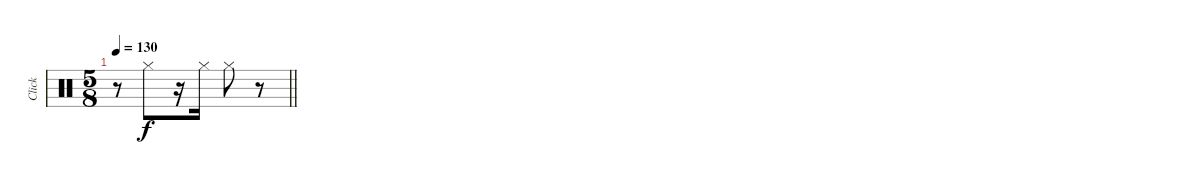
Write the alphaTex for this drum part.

\track ("Click" "Click") {instrument percussion}
\staff {score}
\articulation defaults
\ts (5 8)
\tempo 130
\clef neutral
\barLineRight lightlight
\ks c
r.8{dy f} "Hi-Hat (closed)".8 r.16 "Hi-Hat (closed)".16 "Hi-Hat (closed)".8 r.8
